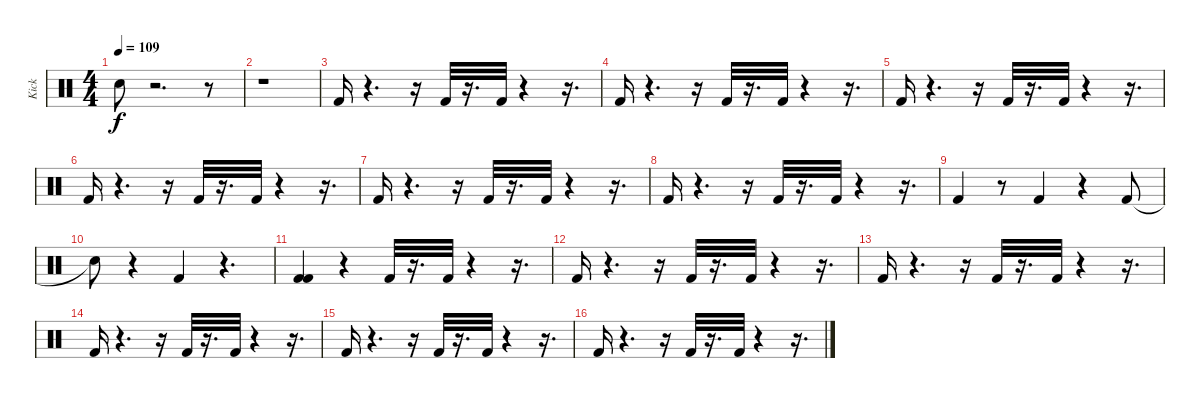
\track ("Kick" "Kick") {instrument percussion}
\staff {score}
\articulation defaults
\ts (4 4)
\tempo 109
\clef neutral
\ks c "Snare (hit)"{t}.8{dy f}
r.2{d} r.8 |
r.1 |
"Kick (hit) 2".16 r.4{d} r.16 "Kick (hit) 2".32 r.16{d} "Kick (hit) 2".32 r.4 r.16{d} |
"Kick (hit) 2".16 r.4{d} r.16 "Kick (hit) 2".32 r.16{d} "Kick (hit) 2".32 r.4 r.16{d} |
"Kick (hit) 2".16 r.4{d} r.16 "Kick (hit) 2".32 r.16{d} "Kick (hit) 2".32 r.4 r.16{d} |
"Kick (hit) 2".16 r.4{d} r.16 "Kick (hit) 2".32 r.16{d} "Kick (hit) 2".32 r.4 r.16{d} |
"Kick (hit) 2".16 r.4{d} r.16 "Kick (hit) 2".32 r.16{d} "Kick (hit) 2".32 r.4 r.16{d} |
"Kick (hit) 2".16 r.4{d} r.16 "Kick (hit) 2".32 r.16{d} "Kick (hit) 2".32 r.4 r.16{d} |
"Kick (hit) 2".4 r.8 "Kick (hit) 2".4 r.4 "Kick (hit) 2".8 |
"Snare (hit)"{t}.8 r.4 "Kick (hit) 2".4 r.4{d} |
("Kick (hit) 2" "Kick (hit) 2").4 r.4 "Kick (hit) 2".32 r.16{d} "Kick (hit) 2".32 r.4 r.16{d} |
"Kick (hit) 2".16 r.4{d} r.16 "Kick (hit) 2".32 r.16{d} "Kick (hit) 2".32 r.4 r.16{d} |
"Kick (hit) 2".16 r.4{d} r.16 "Kick (hit) 2".32 r.16{d} "Kick (hit) 2".32 r.4 r.16{d} |
"Kick (hit) 2".16 r.4{d} r.16 "Kick (hit) 2".32 r.16{d} "Kick (hit) 2".32 r.4 r.16{d} |
"Kick (hit) 2".16 r.4{d} r.16 "Kick (hit) 2".32 r.16{d} "Kick (hit) 2".32 r.4 r.16{d} |
"Kick (hit) 2".16 r.4{d} r.16 "Kick (hit) 2".32 r.16{d} "Kick (hit) 2".32 r.4 r.16{d}
